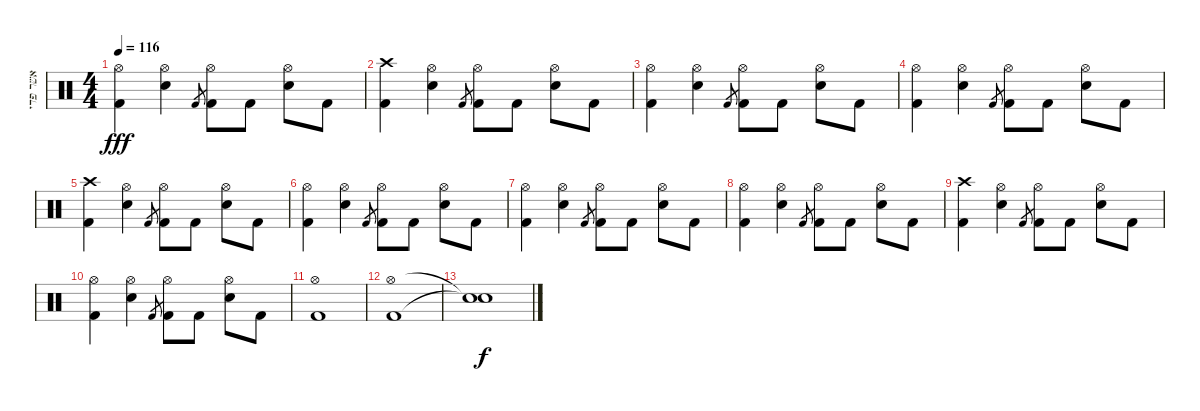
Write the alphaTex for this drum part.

\track ("אשר פדי" "אשר פדי") {instrument percussion}
\staff {score}
\articulation defaults
\ts (4 4)
\tempo 116
\clef neutral
\ks c
("Hi-Hat (open)" "Kick (hit) 2").4{dy fff} ("Hi-Hat (open)" "Electric Snare (hit)").4 "Kick (hit) 2".8{gr} ("Hi-Hat (open)" "Kick (hit) 2").8 "Kick (hit) 2".8 ("Hi-Hat (open)" "Electric Snare (hit)").8 "Kick (hit) 2".8 |
("Crash high (hit)" "Kick (hit) 2").4 ("Hi-Hat (open)" "Electric Snare (hit)").4 "Kick (hit) 2".8{gr} ("Hi-Hat (open)" "Kick (hit) 2").8 "Kick (hit) 2".8 ("Hi-Hat (open)" "Snare (hit) 2").8 "Kick (hit) 2".8 |
("Hi-Hat (open)" "Kick (hit) 2").4 ("Hi-Hat (open)" "Snare (hit) 2").4 "Kick (hit) 2".8{gr} ("Hi-Hat (open)" "Kick (hit) 2").8 "Kick (hit) 2".8 ("Hi-Hat (open)" "Electric Snare (hit)").8 "Kick (hit) 2".8 |
("Hi-Hat (open)" "Kick (hit) 2").4 ("Hi-Hat (open)" "Electric Snare (hit)").4 "Kick (hit) 2".8{gr} ("Hi-Hat (open)" "Kick (hit) 2").8 "Kick (hit) 2".8 ("Hi-Hat (open)" "Electric Snare (hit)").8 "Kick (hit) 2".8 |
("Crash high (hit)" "Kick (hit) 2").4 ("Hi-Hat (open)" "Electric Snare (hit)").4 "Kick (hit) 2".8{gr} ("Hi-Hat (open)" "Kick (hit) 2").8 "Kick (hit) 2".8 ("Hi-Hat (open)" "Snare (hit) 2").8 "Kick (hit) 2".8 |
("Hi-Hat (open)" "Kick (hit) 2").4 ("Hi-Hat (open)" "Snare (hit) 2").4 "Kick (hit) 2".8{gr} ("Hi-Hat (open)" "Kick (hit) 2").8 "Kick (hit) 2".8 ("Hi-Hat (open)" "Electric Snare (hit)").8 "Kick (hit) 2".8 |
("Hi-Hat (open)" "Kick (hit) 2").4 ("Hi-Hat (open)" "Electric Snare (hit)").4 "Kick (hit) 2".8{gr} ("Hi-Hat (open)" "Kick (hit) 2").8 "Kick (hit) 2".8 ("Hi-Hat (open)" "Electric Snare (hit)").8 "Kick (hit) 2".8 |
("Hi-Hat (open)" "Kick (hit) 2").4 ("Hi-Hat (open)" "Electric Snare (hit)").4 "Kick (hit) 2".8{gr} ("Hi-Hat (open)" "Kick (hit) 2").8 "Kick (hit) 2".8 ("Hi-Hat (open)" "Electric Snare (hit)").8 "Kick (hit) 2".8 |
("Crash high (hit)" "Kick (hit) 2").4 ("Hi-Hat (open)" "Electric Snare (hit)").4 "Kick (hit) 2".8{gr} ("Hi-Hat (open)" "Kick (hit) 2").8 "Kick (hit) 2".8 ("Hi-Hat (open)" "Snare (hit) 2").8 "Kick (hit) 2".8 |
("Hi-Hat (open)" "Kick (hit) 2").4 ("Hi-Hat (open)" "Snare (hit) 2").4 "Kick (hit) 2".8{gr} ("Hi-Hat (open)" "Kick (hit) 2").8 "Kick (hit) 2".8 ("Hi-Hat (open)" "Electric Snare (hit)").8 "Kick (hit) 2".8 |
("Hi-Hat (open)" "Kick (hit) 2").1 |
("Hi-Hat (open)" "Kick (hit) 2").1 |
("Snare (hit)"{t} "Snare (hit)"{t}).1{dy f}
